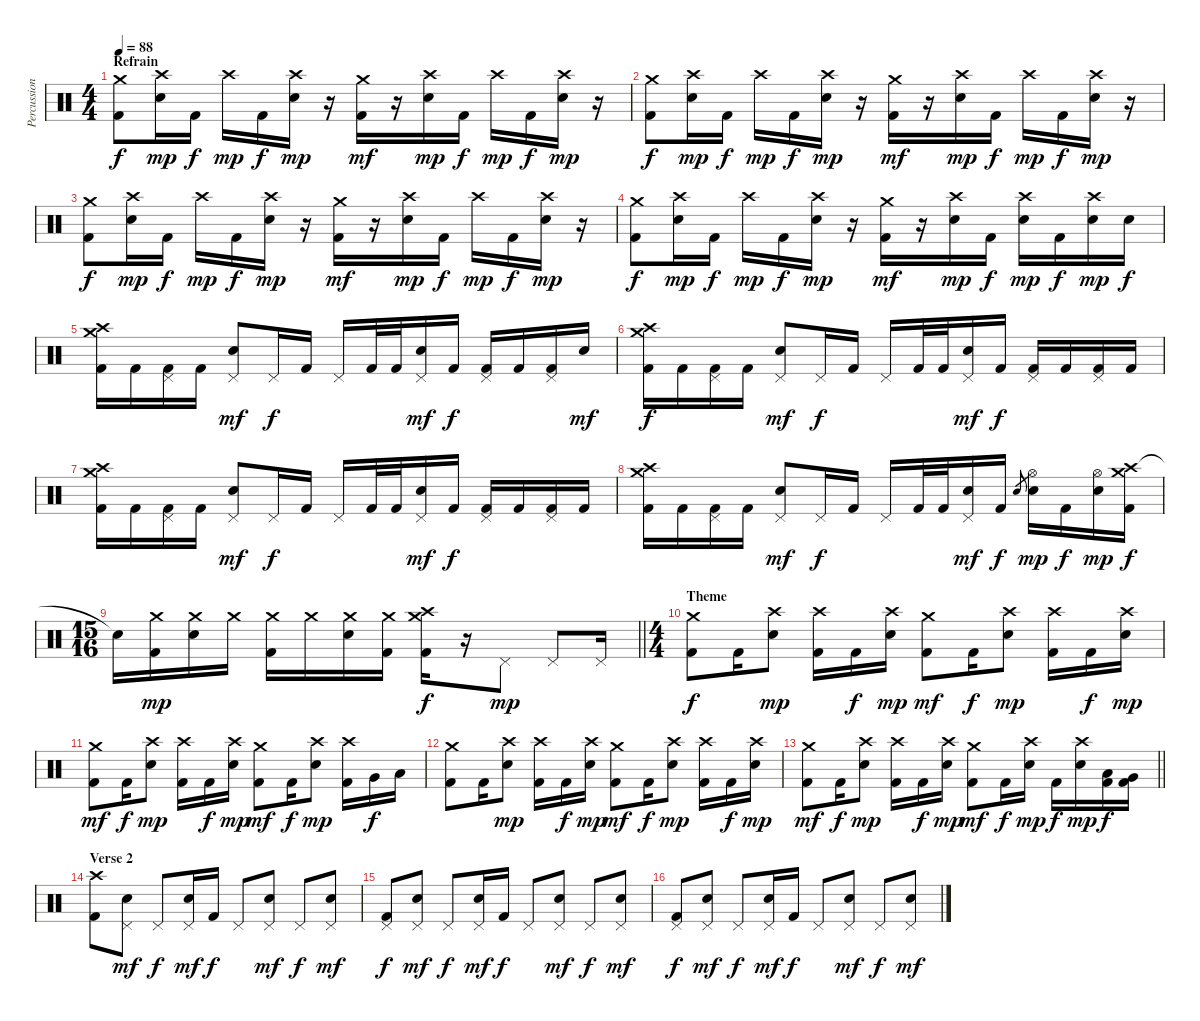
\track ("Percussion" "Percussion") {instrument percussion}
\staff {score}
\articulation defaults
\ts (4 4)
\section ("" "Refrain")
\tempo 88
\clef neutral
\ks c
("Crash medium (hit)" "Kick (hit) 2").8{dy f} ("Crash high (hit)" "Electric Snare (hit)").16{dy mp} "Kick (hit) 2".16{dy f} "Crash high (hit)".16{dy mp} "Kick (hit) 2".16{dy f} ("Crash high (hit)" "Electric Snare (hit)").16{dy mp} r.16 ("Crash medium (hit)" "Kick (hit) 2").16{dy mf} r.16 ("Crash high (hit)" "Electric Snare (hit)").16{dy mp} "Kick (hit) 2".16{dy f} "Crash high (hit)".16{dy mp} "Kick (hit) 2".16{dy f} ("Crash high (hit)" "Electric Snare (hit)").16{dy mp} r.16 |
("Crash medium (hit)" "Kick (hit) 2").8{dy f} ("Crash high (hit)" "Electric Snare (hit)").16{dy mp} "Kick (hit) 2".16{dy f} "Crash high (hit)".16{dy mp} "Kick (hit) 2".16{dy f} ("Crash high (hit)" "Electric Snare (hit)").16{dy mp} r.16 ("Crash medium (hit)" "Kick (hit) 2").16{dy mf} r.16 ("Crash high (hit)" "Electric Snare (hit)").16{dy mp} "Kick (hit) 2".16{dy f} "Crash high (hit)".16{dy mp} "Kick (hit) 2".16{dy f} ("Crash high (hit)" "Electric Snare (hit)").16{dy mp} r.16 |
("Crash medium (hit)" "Kick (hit) 2").8{dy f} ("Crash high (hit)" "Electric Snare (hit)").16{dy mp} "Kick (hit) 2".16{dy f} "Crash high (hit)".16{dy mp} "Kick (hit) 2".16{dy f} ("Crash high (hit)" "Electric Snare (hit)").16{dy mp} r.16 ("Crash medium (hit)" "Kick (hit) 2").16{dy mf} r.16 ("Crash high (hit)" "Electric Snare (hit)").16{dy mp} "Kick (hit) 2".16{dy f} "Crash high (hit)".16{dy mp} "Kick (hit) 2".16{dy f} ("Crash high (hit)" "Electric Snare (hit)").16{dy mp} r.16 |
("Crash medium (hit)" "Kick (hit) 2").8{dy f} ("Crash high (hit)" "Electric Snare (hit)").16{dy mp} "Kick (hit) 2".16{dy f} "Crash high (hit)".16{dy mp} "Kick (hit) 2".16{dy f} ("Crash high (hit)" "Electric Snare (hit)").16{dy mp} r.16 ("Crash medium (hit)" "Kick (hit) 2").16{dy mf} r.16 ("Crash high (hit)" "Electric Snare (hit)").16{dy mp} "Kick (hit) 2".16{dy f} ("Crash high (hit)" "Electric Snare (hit)").16{dy mp} "Kick (hit) 2".16{dy f} ("Crash high (hit)" "Electric Snare (hit)").16{dy mp} "Electric Snare (hit)".16{dy f} |
("Crash high (hit)" "Crash medium (hit)" "Kick (hit) 2").16 "Kick (hit) 2".16 ("Pedal Hi-Hat (hit)" "Kick (hit) 2").16 "Kick (hit) 2".16 ("Pedal Hi-Hat (hit)" "Electric Snare (hit)").8{dy mf} "Pedal Hi-Hat (hit)".16{dy f} "Kick (hit) 2".16 "Pedal Hi-Hat (hit)".16 "Kick (hit) 2".32 "Kick (hit) 2".32 ("Pedal Hi-Hat (hit)" "Electric Snare (hit)").16{dy mf} "Kick (hit) 2".16{dy f} ("Pedal Hi-Hat (hit)" "Kick (hit) 2").16 "Kick (hit) 2".16 ("Pedal Hi-Hat (hit)" "Kick (hit) 2").16 "Electric Snare (hit)".16{dy mf} |
("Crash high (hit)" "Crash medium (hit)" "Kick (hit) 2").16{dy f} "Kick (hit) 2".16 ("Pedal Hi-Hat (hit)" "Kick (hit) 2").16 "Kick (hit) 2".16 ("Pedal Hi-Hat (hit)" "Electric Snare (hit)").8{dy mf} "Pedal Hi-Hat (hit)".16{dy f} "Kick (hit) 2".16 "Pedal Hi-Hat (hit)".16 "Kick (hit) 2".32 "Kick (hit) 2".32 ("Pedal Hi-Hat (hit)" "Electric Snare (hit)").16{dy mf} "Kick (hit) 2".16{dy f} ("Pedal Hi-Hat (hit)" "Kick (hit) 2").16 "Kick (hit) 2".16 ("Pedal Hi-Hat (hit)" "Kick (hit) 2").16 "Kick (hit) 2".16 |
("Crash high (hit)" "Crash medium (hit)" "Kick (hit) 2").16 "Kick (hit) 2".16 ("Pedal Hi-Hat (hit)" "Kick (hit) 2").16 "Kick (hit) 2".16 ("Pedal Hi-Hat (hit)" "Electric Snare (hit)").8{dy mf} "Pedal Hi-Hat (hit)".16{dy f} "Kick (hit) 2".16 "Pedal Hi-Hat (hit)".16 "Kick (hit) 2".32 "Kick (hit) 2".32 ("Pedal Hi-Hat (hit)" "Electric Snare (hit)").16{dy mf} "Kick (hit) 2".16{dy f} ("Pedal Hi-Hat (hit)" "Kick (hit) 2").16 "Kick (hit) 2".16 ("Pedal Hi-Hat (hit)" "Kick (hit) 2").16 "Kick (hit) 2".16 |
("Crash high (hit)" "Crash medium (hit)" "Kick (hit) 2").16 "Kick (hit) 2".16 ("Pedal Hi-Hat (hit)" "Kick (hit) 2").16 "Kick (hit) 2".16 ("Pedal Hi-Hat (hit)" "Electric Snare (hit)").8{dy mf} "Pedal Hi-Hat (hit)".16{dy f} "Kick (hit) 2".16 "Pedal Hi-Hat (hit)".16 "Kick (hit) 2".32 "Kick (hit) 2".32 ("Pedal Hi-Hat (hit)" "Electric Snare (hit)").16{dy mf} "Kick (hit) 2".16{dy f} "Electric Snare (hit)".8{gr} ("Hi-Hat (open)" "Electric Snare (hit)").16{dy mp} "Kick (hit) 2".16{dy f} ("Hi-Hat (open)" "Electric Snare (hit)").16{dy mp} ("Crash high (hit)" "Crash medium (hit)" "Kick (hit) 2").16{dy f} |
\ts (15 16)
\barLineRight lightlight "Snare (hit)"{t}.16
("Crash medium (hit)" "Kick (hit) 2").16{dy mp} ("Crash medium (hit)" "Electric Snare (hit)").16 "Crash medium (hit)".16 ("Crash medium (hit)" "Kick (hit) 2").16 "Crash medium (hit)".16 ("Crash medium (hit)" "Electric Snare (hit)").16 ("Crash medium (hit)" "Kick (hit) 2").16 ("Crash high (hit)" "Crash medium (hit)" "Kick (hit) 2").16{dy f} r.16 "Pedal Hi-Hat (hit)".8{dy mp} "Pedal Hi-Hat (hit)".8 "Pedal Hi-Hat (hit)".16 |
\ts (4 4)
\section ("" "Theme")
("Crash medium (hit)" "Kick (hit) 2").8{dy f} "Kick (hit) 2".16 ("Crash high (hit)" "Electric Snare (hit)").8{dy mp} ("Crash high (hit)" "Kick (hit) 2").16 "Kick (hit) 2".16{dy f} ("Crash high (hit)" "Electric Snare (hit)").16{dy mp} ("Crash medium (hit)" "Kick (hit) 2").8{dy mf} "Kick (hit) 2".16{dy f} ("Crash high (hit)" "Electric Snare (hit)").8{dy mp} ("Crash high (hit)" "Kick (hit) 2").16 "Kick (hit) 2".16{dy f} ("Crash high (hit)" "Electric Snare (hit)").16{dy mp} |
("Crash medium (hit)" "Kick (hit) 2").8{dy mf} "Kick (hit) 2".16{dy f} ("Crash high (hit)" "Electric Snare (hit)").8{dy mp} ("Crash high (hit)" "Kick (hit) 2").16 "Kick (hit) 2".16{dy f} ("Crash high (hit)" "Electric Snare (hit)").16{dy mp} ("Crash medium (hit)" "Kick (hit) 2").8{dy mf} "Kick (hit) 2".16{dy f} ("Crash high (hit)" "Electric Snare (hit)").8{dy mp} ("Crash high (hit)" "Kick (hit) 2").16 "Very Low Tom (hit)".16{dy f} "Low Floor Tom (hit)".16 |
("Crash medium (hit)" "Kick (hit) 2").8 "Kick (hit) 2".16 ("Crash high (hit)" "Electric Snare (hit)").8{dy mp} ("Crash high (hit)" "Kick (hit) 2").16 "Kick (hit) 2".16{dy f} ("Crash high (hit)" "Electric Snare (hit)").16{dy mp} ("Crash medium (hit)" "Kick (hit) 2").8{dy mf} "Kick (hit) 2".16{dy f} ("Crash high (hit)" "Electric Snare (hit)").8{dy mp} ("Crash high (hit)" "Kick (hit) 2").16 "Kick (hit) 2".16{dy f} ("Crash high (hit)" "Electric Snare (hit)").16{dy mp} |
\barLineRight lightlight
("Crash medium (hit)" "Kick (hit) 2").8{dy mf} "Kick (hit) 2".16{dy f} ("Crash high (hit)" "Electric Snare (hit)").8{dy mp} ("Crash high (hit)" "Kick (hit) 2").16 "Kick (hit) 2".16{dy f} ("Crash high (hit)" "Electric Snare (hit)").16{dy mp} ("Crash medium (hit)" "Kick (hit) 2").8{dy mf} "Kick (hit) 2".16{dy f} ("Crash high (hit)" "Electric Snare (hit)").16{dy mp} "Kick (hit) 2".16{dy f} ("Crash high (hit)" "Electric Snare (hit)").16{dy mp} ("Low Tom (hit)" "Kick (hit) 2").16{dy f} ("Very Low Tom (hit)" "Kick (hit) 2").16 |
\section ("" "Verse 2")
("Crash high (hit)" "Kick (hit) 2").8 ("Pedal Hi-Hat (hit)" "Electric Snare (hit)").8{dy mf} "Pedal Hi-Hat (hit)".8{dy f} ("Pedal Hi-Hat (hit)" "Electric Snare (hit)").16{dy mf} "Kick (hit) 2".16{dy f} "Pedal Hi-Hat (hit)".8 ("Pedal Hi-Hat (hit)" "Electric Snare (hit)").8{dy mf} "Pedal Hi-Hat (hit)".8{dy f} ("Pedal Hi-Hat (hit)" "Electric Snare (hit)").8{dy mf} |
("Pedal Hi-Hat (hit)" "Kick (hit) 2").8{dy f} ("Pedal Hi-Hat (hit)" "Electric Snare (hit)").8{dy mf} "Pedal Hi-Hat (hit)".8{dy f} ("Pedal Hi-Hat (hit)" "Electric Snare (hit)").16{dy mf} "Kick (hit) 2".16{dy f} "Pedal Hi-Hat (hit)".8 ("Pedal Hi-Hat (hit)" "Electric Snare (hit)").8{dy mf} "Pedal Hi-Hat (hit)".8{dy f} ("Pedal Hi-Hat (hit)" "Electric Snare (hit)").8{dy mf} |
("Pedal Hi-Hat (hit)" "Kick (hit) 2").8{dy f} ("Pedal Hi-Hat (hit)" "Electric Snare (hit)").8{dy mf} "Pedal Hi-Hat (hit)".8{dy f} ("Pedal Hi-Hat (hit)" "Electric Snare (hit)").16{dy mf} "Kick (hit) 2".16{dy f} "Pedal Hi-Hat (hit)".8 ("Pedal Hi-Hat (hit)" "Electric Snare (hit)").8{dy mf} "Pedal Hi-Hat (hit)".8{dy f} ("Pedal Hi-Hat (hit)" "Electric Snare (hit)").8{dy mf}
